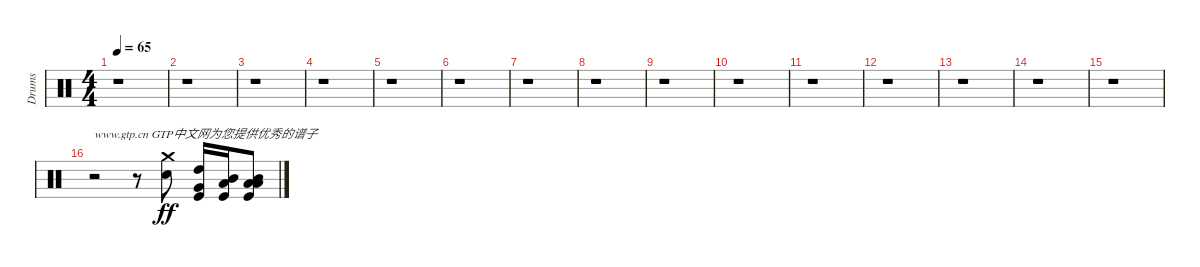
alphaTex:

\track ("Drums" "Drums") {instrument percussion}
\staff {score}
\articulation defaults
\ts (4 4)
\tempo 65
\clef neutral
\ks c
r.1{dy ff} |
r.1 |
r.1 |
r.1 |
r.1 |
r.1 |
r.1 |
r.1 |
r.1 |
r.1 |
r.1 |
r.1 |
r.1 |
r.1 |
r.1 |
r.2{txt "www.gtp.cn GTP中文网为您提供优秀的谱子"} r.8 ("Electric Snare (hit)" "Crash medium (hit)").8 ("Kick (hit)" "Very Low Tom (hit)" "High Tom (hit)").16 ("Kick (hit)" "Low Floor Tom (hit)" "Mid Tom (hit)").16 ("Kick (hit)" "Low Floor Tom (hit)" "Low Tom (hit)" "Mid Tom (hit)").8
